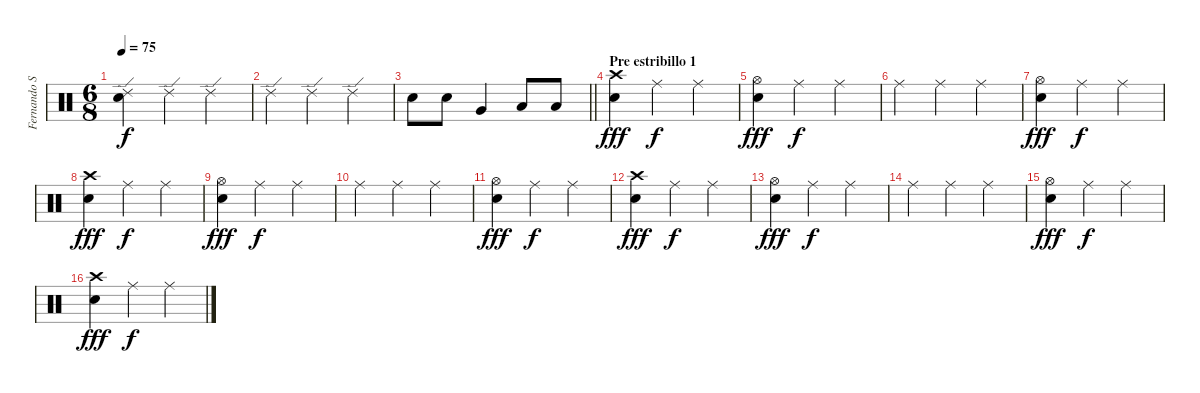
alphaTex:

\track ("Fernando Scarcella " "Fernando S") {instrument percussion}
\staff {score}
\articulation defaults
\ts (6 8)
\tempo 75
\clef neutral
\ks c
("Electric Snare (hit)" "Ride (edge) 2").4{dy f} "Ride (edge) 2".4 "Ride (edge) 2".4 |
"Ride (edge) 2".4 "Ride (edge) 2".4 "Ride (edge) 2".4 |
\barLineRight lightlight "Electric Snare (hit)".8 "Electric Snare (hit)".8 "Very Low Tom (hit)".4 "Low Tom (hit)".8 "Low Tom (hit)".8
|
\section ("" "Pre estribillo 1")
("Snare (hit) 2" "Crash high (hit)").4{dy fff} "Ride (middle)".4{dy f} "Ride (middle)".4 |
("Hi-Hat (open)" "Snare (hit) 2").4{dy fff} "Ride (middle)".4{dy f} "Ride (middle)".4 |
"Ride (middle)".4 "Ride (middle)".4 "Ride (middle)".4 |
("Hi-Hat (open)" "Snare (hit) 2").4{dy fff} "Ride (middle)".4{dy f} "Ride (middle)".4 |
("Snare (hit) 2" "Crash high (hit)").4{dy fff} "Ride (middle)".4{dy f} "Ride (middle)".4 |
("Hi-Hat (open)" "Snare (hit) 2").4{dy fff} "Ride (middle)".4{dy f} "Ride (middle)".4 |
"Ride (middle)".4 "Ride (middle)".4 "Ride (middle)".4 |
("Hi-Hat (open)" "Snare (hit) 2").4{dy fff} "Ride (middle)".4{dy f} "Ride (middle)".4 |
("Snare (hit) 2" "Crash high (hit)").4{dy fff} "Ride (middle)".4{dy f} "Ride (middle)".4 |
("Hi-Hat (open)" "Snare (hit) 2").4{dy fff} "Ride (middle)".4{dy f} "Ride (middle)".4 |
"Ride (middle)".4 "Ride (middle)".4 "Ride (middle)".4 |
("Hi-Hat (open)" "Snare (hit) 2").4{dy fff} "Ride (middle)".4{dy f} "Ride (middle)".4 |
("Snare (hit) 2" "Crash high (hit)").4{dy fff} "Ride (middle)".4{dy f} "Ride (middle)".4
